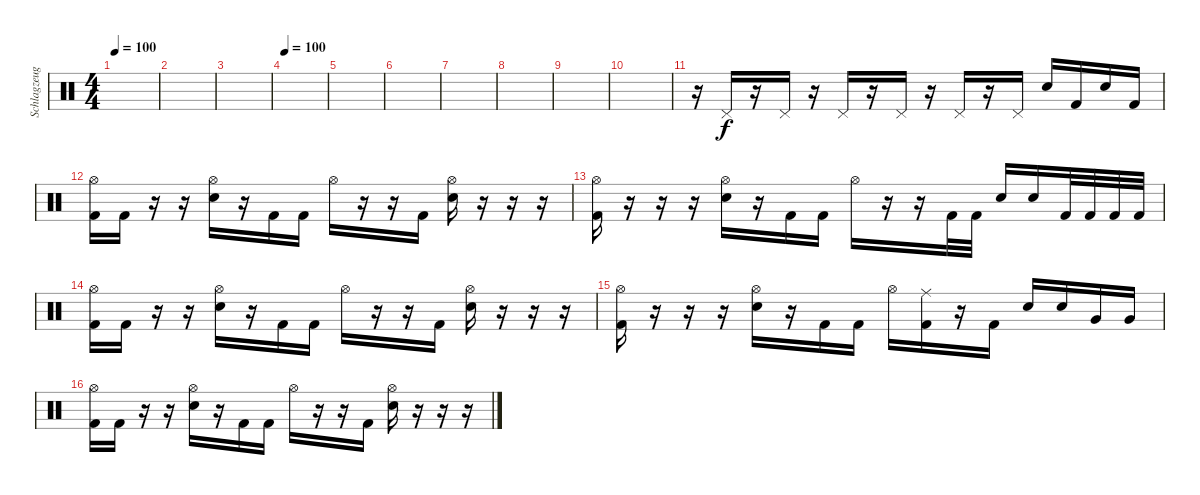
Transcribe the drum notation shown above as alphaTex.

\track ("Schlagzeug" "Schlagzeug") {instrument percussion}
\staff {score}
\articulation defaults
\ts (4 4)
\tempo 100
\clef neutral
\ks c
|
|
|
\tempo 100
|
|
|
|
|
|
|
r.16 "Pedal Hi-Hat (hit)".16 r.16 "Pedal Hi-Hat (hit)".16 r.16 "Pedal Hi-Hat (hit)".16 r.16 "Pedal Hi-Hat (hit)".16 r.16 "Pedal Hi-Hat (hit)".16 r.16 "Pedal Hi-Hat (hit)".16 "Snare (hit) 2".16 "Kick (hit) 2".16 "Snare (hit) 2".16 "Kick (hit) 2".16 |
("Hi-Hat (open)" "Kick (hit) 2").16 "Kick (hit) 2".16 r.16 r.16 ("Hi-Hat (open)" "Snare (hit) 2").16 r.16 "Kick (hit) 2".16 "Kick (hit) 2".16 "Hi-Hat (open)".16 r.16 r.16 "Kick (hit) 2".16 ("Hi-Hat (open)" "Snare (hit) 2").16 r.16 r.16 r.16 |
("Hi-Hat (open)" "Kick (hit) 2").16 r.16 r.16 r.16 ("Hi-Hat (open)" "Snare (hit) 2").16 r.16 "Kick (hit) 2".16 "Kick (hit) 2".16 "Hi-Hat (open)".16 r.16 r.16 "Kick (hit) 2".32 "Kick (hit) 2".32 "Snare (hit) 2".16 "Snare (hit) 2".16 "Kick (hit) 2".32 "Kick (hit) 2".32 "Kick (hit) 2".32 "Kick (hit) 2".32 |
("Hi-Hat (open)" "Kick (hit) 2").16 "Kick (hit) 2".16 r.16 r.16 ("Hi-Hat (open)" "Snare (hit) 2").16 r.16 "Kick (hit) 2".16 "Kick (hit) 2".16 "Hi-Hat (open)".16 r.16 r.16 "Kick (hit) 2".16 ("Hi-Hat (open)" "Snare (hit) 2").16 r.16 r.16 r.16 |
("Hi-Hat (open)" "Kick (hit) 2").16 r.16 r.16 r.16 ("Hi-Hat (open)" "Snare (hit) 2").16 r.16 "Kick (hit) 2".16 "Kick (hit) 2".16 "Hi-Hat (open)".16 ("Ride (middle)" "Kick (hit) 2").16 r.16 "Kick (hit) 2".16 "Snare (hit) 2".16 "Snare (hit) 2".16 "Very Low Tom (hit)".16 "Very Low Tom (hit)".16 |
("Hi-Hat (open)" "Kick (hit) 2").16 "Kick (hit) 2".16 r.16 r.16 ("Hi-Hat (open)" "Snare (hit) 2").16 r.16 "Kick (hit) 2".16 "Kick (hit) 2".16 "Hi-Hat (open)".16 r.16 r.16 "Kick (hit) 2".16 ("Hi-Hat (open)" "Snare (hit) 2").16 r.16 r.16 r.16
